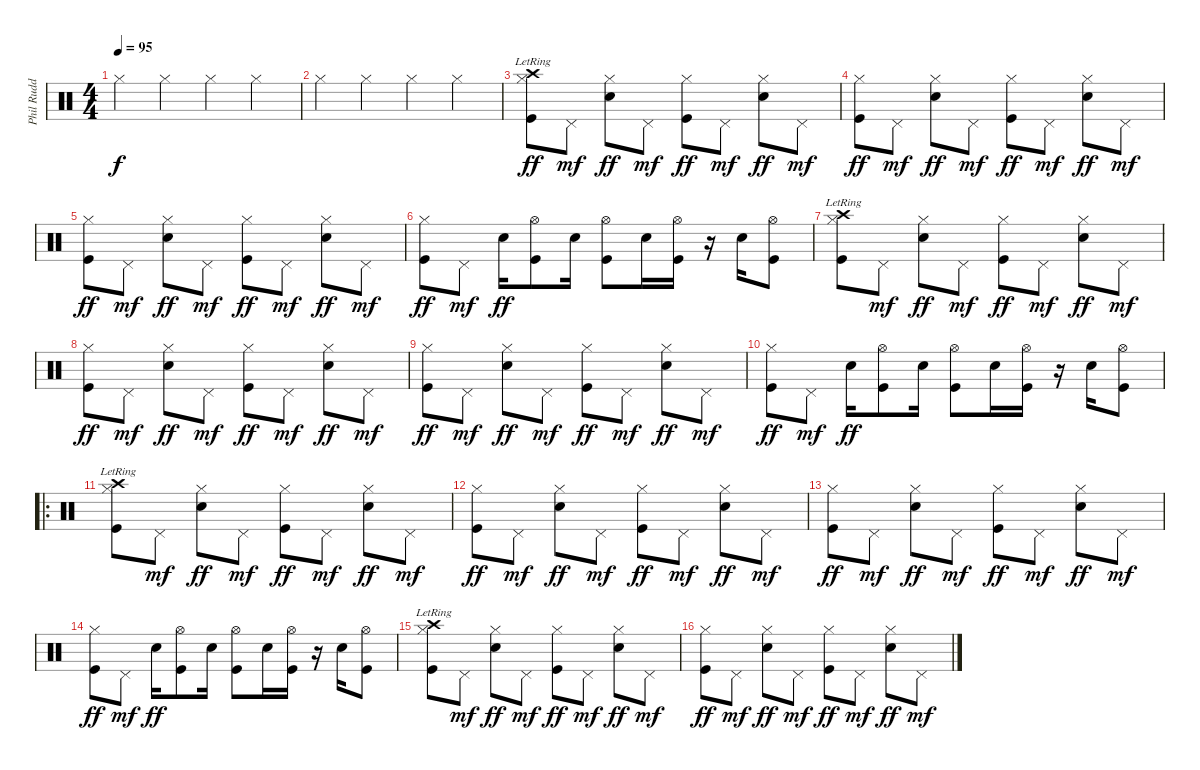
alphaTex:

\track ("Phil Rudd" "Phil Rudd") {instrument percussion}
\staff {score}
\articulation defaults
\ts (4 4)
\tempo 95
\clef neutral
\ks c "Hi-Hat (closed)".4{dy f} "Hi-Hat (closed)".4 "Hi-Hat (closed)".4 "Hi-Hat (closed)".4
|
"Hi-Hat (closed)".4 "Hi-Hat (closed)".4 "Hi-Hat (closed)".4 "Hi-Hat (closed)".4 |
("Crash high (hit)"{lr} "Hi-Hat (closed)" "Kick (hit)").8{dy ff} "Pedal Hi-Hat (hit)".8{dy mf} ("Hi-Hat (closed)" "Snare (hit) 2").8{dy ff} "Pedal Hi-Hat (hit)".8{dy mf} ("Hi-Hat (closed)" "Kick (hit)").8{dy ff} "Pedal Hi-Hat (hit)".8{dy mf} ("Hi-Hat (closed)" "Snare (hit) 2").8{dy ff} "Pedal Hi-Hat (hit)".8{dy mf} |
("Hi-Hat (closed)" "Kick (hit)").8{dy ff} "Pedal Hi-Hat (hit)".8{dy mf} ("Hi-Hat (closed)" "Snare (hit) 2").8{dy ff} "Pedal Hi-Hat (hit)".8{dy mf} ("Hi-Hat (closed)" "Kick (hit)").8{dy ff} "Pedal Hi-Hat (hit)".8{dy mf} ("Hi-Hat (closed)" "Snare (hit) 2").8{dy ff} "Pedal Hi-Hat (hit)".8{dy mf} |
("Hi-Hat (closed)" "Kick (hit)").8{dy ff} "Pedal Hi-Hat (hit)".8{dy mf} ("Hi-Hat (closed)" "Snare (hit) 2").8{dy ff} "Pedal Hi-Hat (hit)".8{dy mf} ("Hi-Hat (closed)" "Kick (hit)").8{dy ff} "Pedal Hi-Hat (hit)".8{dy mf} ("Hi-Hat (closed)" "Snare (hit) 2").8{dy ff} "Pedal Hi-Hat (hit)".8{dy mf} |
("Hi-Hat (closed)" "Kick (hit)").8{dy ff} "Pedal Hi-Hat (hit)".8{dy mf} "Snare (hit) 2".16{dy ff} ("Hi-Hat (open)" "Kick (hit)").8 "Snare (hit) 2".16 ("Hi-Hat (open)" "Kick (hit)").8 "Snare (hit) 2".16 ("Hi-Hat (open)" "Kick (hit)").16 r.16 "Snare (hit) 2".16 ("Hi-Hat (open)" "Kick (hit)").8 |
("Crash high (hit)"{lr} "Hi-Hat (closed)" "Kick (hit)").8 "Pedal Hi-Hat (hit)".8{dy mf} ("Hi-Hat (closed)" "Snare (hit) 2").8{dy ff} "Pedal Hi-Hat (hit)".8{dy mf} ("Hi-Hat (closed)" "Kick (hit)").8{dy ff} "Pedal Hi-Hat (hit)".8{dy mf} ("Hi-Hat (closed)" "Snare (hit) 2").8{dy ff} "Pedal Hi-Hat (hit)".8{dy mf} |
("Hi-Hat (closed)" "Kick (hit)").8{dy ff} "Pedal Hi-Hat (hit)".8{dy mf} ("Hi-Hat (closed)" "Snare (hit) 2").8{dy ff} "Pedal Hi-Hat (hit)".8{dy mf} ("Hi-Hat (closed)" "Kick (hit)").8{dy ff} "Pedal Hi-Hat (hit)".8{dy mf} ("Hi-Hat (closed)" "Snare (hit) 2").8{dy ff} "Pedal Hi-Hat (hit)".8{dy mf} |
("Hi-Hat (closed)" "Kick (hit)").8{dy ff} "Pedal Hi-Hat (hit)".8{dy mf} ("Hi-Hat (closed)" "Snare (hit) 2").8{dy ff} "Pedal Hi-Hat (hit)".8{dy mf} ("Hi-Hat (closed)" "Kick (hit)").8{dy ff} "Pedal Hi-Hat (hit)".8{dy mf} ("Hi-Hat (closed)" "Snare (hit) 2").8{dy ff} "Pedal Hi-Hat (hit)".8{dy mf} |
("Hi-Hat (closed)" "Kick (hit)").8{dy ff} "Pedal Hi-Hat (hit)".8{dy mf} "Snare (hit) 2".16{dy ff} ("Hi-Hat (open)" "Kick (hit)").8 "Snare (hit) 2".16 ("Hi-Hat (open)" "Kick (hit)").8 "Snare (hit) 2".16 ("Hi-Hat (open)" "Kick (hit)").16 r.16 "Snare (hit) 2".16 ("Hi-Hat (open)" "Kick (hit)").8 |
\ro
("Crash high (hit)"{lr} "Hi-Hat (closed)" "Kick (hit)").8 "Pedal Hi-Hat (hit)".8{dy mf} ("Hi-Hat (closed)" "Snare (hit) 2").8{dy ff} "Pedal Hi-Hat (hit)".8{dy mf} ("Hi-Hat (closed)" "Kick (hit)").8{dy ff} "Pedal Hi-Hat (hit)".8{dy mf} ("Hi-Hat (closed)" "Snare (hit) 2").8{dy ff} "Pedal Hi-Hat (hit)".8{dy mf} |
("Hi-Hat (closed)" "Kick (hit)").8{dy ff} "Pedal Hi-Hat (hit)".8{dy mf} ("Hi-Hat (closed)" "Snare (hit) 2").8{dy ff} "Pedal Hi-Hat (hit)".8{dy mf} ("Hi-Hat (closed)" "Kick (hit)").8{dy ff} "Pedal Hi-Hat (hit)".8{dy mf} ("Hi-Hat (closed)" "Snare (hit) 2").8{dy ff} "Pedal Hi-Hat (hit)".8{dy mf} |
("Hi-Hat (closed)" "Kick (hit)").8{dy ff} "Pedal Hi-Hat (hit)".8{dy mf} ("Hi-Hat (closed)" "Snare (hit) 2").8{dy ff} "Pedal Hi-Hat (hit)".8{dy mf} ("Hi-Hat (closed)" "Kick (hit)").8{dy ff} "Pedal Hi-Hat (hit)".8{dy mf} ("Hi-Hat (closed)" "Snare (hit) 2").8{dy ff} "Pedal Hi-Hat (hit)".8{dy mf} |
("Hi-Hat (closed)" "Kick (hit)").8{dy ff} "Pedal Hi-Hat (hit)".8{dy mf} "Snare (hit) 2".16{dy ff} ("Hi-Hat (open)" "Kick (hit)").8 "Snare (hit) 2".16 ("Hi-Hat (open)" "Kick (hit)").8 "Snare (hit) 2".16 ("Hi-Hat (open)" "Kick (hit)").16 r.16 "Snare (hit) 2".16 ("Hi-Hat (open)" "Kick (hit)").8 |
("Crash high (hit)"{lr} "Hi-Hat (closed)" "Kick (hit)").8 "Pedal Hi-Hat (hit)".8{dy mf} ("Hi-Hat (closed)" "Snare (hit) 2").8{dy ff} "Pedal Hi-Hat (hit)".8{dy mf} ("Hi-Hat (closed)" "Kick (hit)").8{dy ff} "Pedal Hi-Hat (hit)".8{dy mf} ("Hi-Hat (closed)" "Snare (hit) 2").8{dy ff} "Pedal Hi-Hat (hit)".8{dy mf} |
("Hi-Hat (closed)" "Kick (hit)").8{dy ff} "Pedal Hi-Hat (hit)".8{dy mf} ("Hi-Hat (closed)" "Snare (hit) 2").8{dy ff} "Pedal Hi-Hat (hit)".8{dy mf} ("Hi-Hat (closed)" "Kick (hit)").8{dy ff} "Pedal Hi-Hat (hit)".8{dy mf} ("Hi-Hat (closed)" "Snare (hit) 2").8{dy ff} "Pedal Hi-Hat (hit)".8{dy mf}
